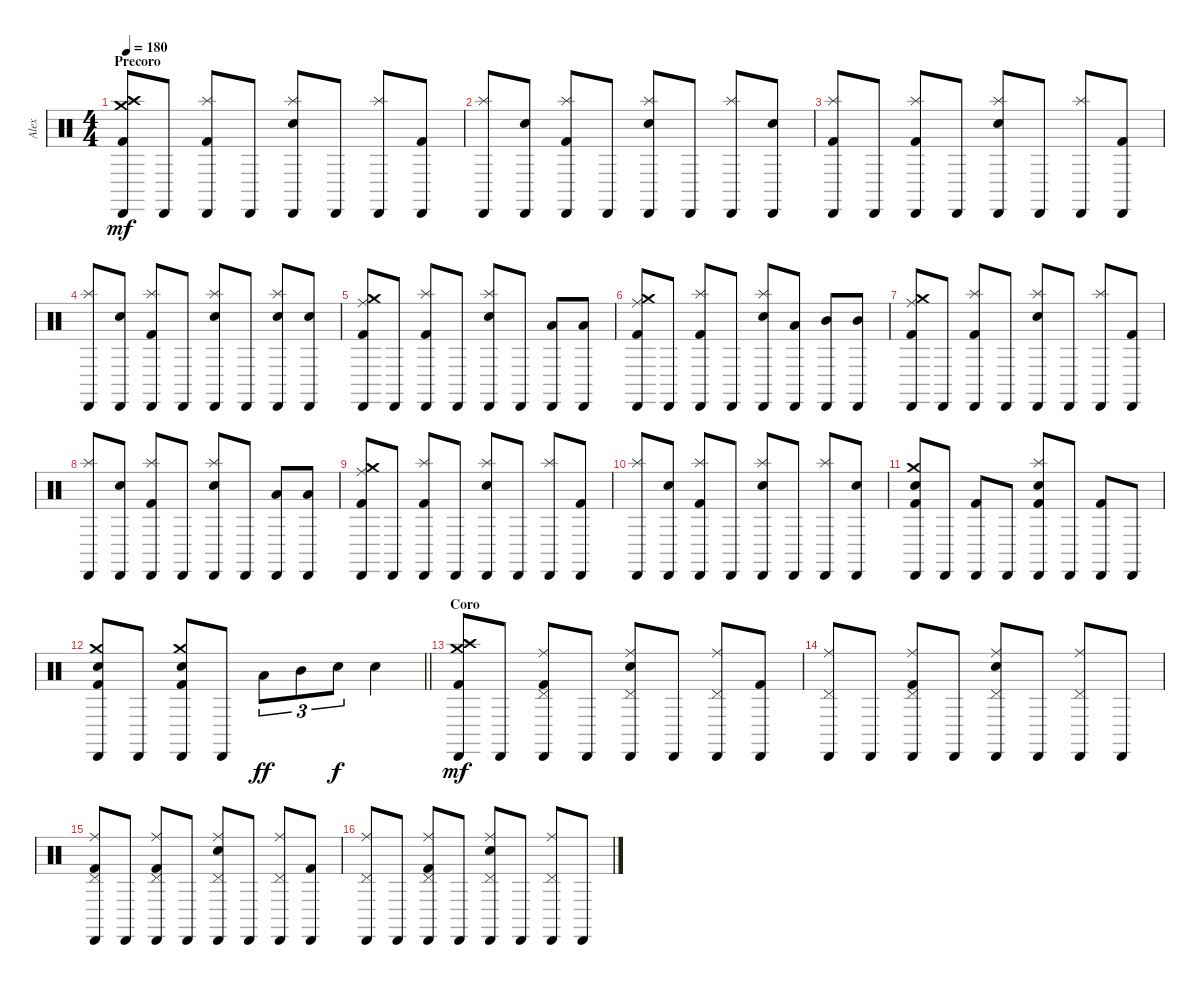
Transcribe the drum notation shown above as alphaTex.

\track ("Alex" "Alex") {instrument percussion}
\staff {score}
\articulation defaults
\ts (4 4)
\section ("" "Precoro")
\tempo 180
\clef neutral
\ks c
("Crash medium (hit)" "Crash high (hit)" "Kick (hit) 2" "Cabasa (hit)").8{dy mf} "Cabasa (hit)".8 ("Splash (hit)" "Kick (hit) 2" "Cabasa (hit)").8 "Cabasa (hit)".8 ("Splash (hit)" "Snare (hit) 2" "Cabasa (hit)").8 "Cabasa (hit)".8 ("Splash (hit)" "Cabasa (hit)").8 ("Kick (hit) 2" "Cabasa (hit)").8 |
("Splash (hit)" "Cabasa (hit)").8 ("Snare (hit) 2" "Cabasa (hit)").8 ("Splash (hit)" "Kick (hit) 2" "Cabasa (hit)").8 "Cabasa (hit)".8 ("Splash (hit)" "Snare (hit) 2" "Cabasa (hit)").8 "Cabasa (hit)".8 ("Splash (hit)" "Cabasa (hit)").8 ("Snare (hit) 2" "Cabasa (hit)").8 |
("Splash (hit)" "Kick (hit) 2" "Cabasa (hit)").8 "Cabasa (hit)".8 ("Splash (hit)" "Kick (hit) 2" "Cabasa (hit)").8 "Cabasa (hit)".8 ("Splash (hit)" "Snare (hit) 2" "Cabasa (hit)").8 "Cabasa (hit)".8 ("Splash (hit)" "Cabasa (hit)").8 ("Kick (hit) 2" "Cabasa (hit)").8 |
("Splash (hit)" "Cabasa (hit)").8 ("Snare (hit) 2" "Cabasa (hit)").8 ("Splash (hit)" "Kick (hit) 2" "Cabasa (hit)").8 "Cabasa (hit)".8 ("Splash (hit)" "Snare (hit) 2" "Cabasa (hit)").8 "Cabasa (hit)".8 ("Splash (hit)" "Snare (hit) 2" "Cabasa (hit)").8 ("Snare (hit) 2" "Cabasa (hit)").8 |
("Ride (middle)" "Crash medium (hit)" "Kick (hit) 2" "Cabasa (hit)").8 "Cabasa (hit)".8 ("Splash (hit)" "Kick (hit) 2" "Cabasa (hit)").8 "Cabasa (hit)".8 ("Splash (hit)" "Snare (hit) 2" "Cabasa (hit)").8 "Cabasa (hit)".8 ("Low Tom (hit)" "Cabasa (hit)").8 ("Low Tom (hit)" "Cabasa (hit)").8 |
("Ride (middle)" "Crash medium (hit)" "Kick (hit) 2" "Cabasa (hit)").8 "Cabasa (hit)".8 ("Splash (hit)" "Kick (hit) 2" "Cabasa (hit)").8 "Cabasa (hit)".8 ("Splash (hit)" "Snare (hit) 2" "Cabasa (hit)").8 ("Low Tom (hit)" "Cabasa (hit)").8 ("Mid Tom (hit)" "Cabasa (hit)").8 ("Mid Tom (hit)" "Cabasa (hit)").8 |
("Ride (middle)" "Crash medium (hit)" "Kick (hit) 2" "Cabasa (hit)").8 "Cabasa (hit)".8 ("Splash (hit)" "Kick (hit) 2" "Cabasa (hit)").8 "Cabasa (hit)".8 ("Splash (hit)" "Snare (hit) 2" "Cabasa (hit)").8 "Cabasa (hit)".8 ("Splash (hit)" "Cabasa (hit)").8 ("Kick (hit) 2" "Cabasa (hit)").8 |
("Splash (hit)" "Cabasa (hit)").8 ("Snare (hit) 2" "Cabasa (hit)").8 ("Splash (hit)" "Kick (hit) 2" "Cabasa (hit)").8 "Cabasa (hit)".8 ("Splash (hit)" "Snare (hit) 2" "Cabasa (hit)").8 "Cabasa (hit)".8 ("Low Tom (hit)" "Cabasa (hit)").8 ("Low Tom (hit)" "Cabasa (hit)").8 |
("Ride (middle)" "Crash medium (hit)" "Kick (hit) 2" "Cabasa (hit)").8 "Cabasa (hit)".8 ("Splash (hit)" "Kick (hit) 2" "Cabasa (hit)").8 "Cabasa (hit)".8 ("Splash (hit)" "Snare (hit) 2" "Cabasa (hit)").8 "Cabasa (hit)".8 ("Splash (hit)" "Cabasa (hit)").8 ("Kick (hit) 2" "Cabasa (hit)").8 |
("Splash (hit)" "Cabasa (hit)").8 ("Snare (hit) 2" "Cabasa (hit)").8 ("Splash (hit)" "Kick (hit) 2" "Cabasa (hit)").8 "Cabasa (hit)".8 ("Splash (hit)" "Snare (hit) 2" "Cabasa (hit)").8 "Cabasa (hit)".8 ("Splash (hit)" "Cabasa (hit)").8 ("Snare (hit) 2" "Cabasa (hit)").8 |
("Crash medium (hit)" "Kick (hit) 2" "Snare (hit) 2" "Cabasa (hit)").8 "Cabasa (hit)".8 ("Kick (hit) 2" "Cabasa (hit)").8 "Cabasa (hit)".8 ("Splash (hit)" "Kick (hit) 2" "Snare (hit) 2" "Cabasa (hit)").8 "Cabasa (hit)".8 ("Kick (hit) 2" "Cabasa (hit)").8 "Cabasa (hit)".8 |
\barLineRight lightlight
("Crash medium (hit)" "Kick (hit) 2" "Snare (hit) 2" "Cabasa (hit)").8 "Cabasa (hit)".8 ("Crash medium (hit)" "Kick (hit) 2" "Snare (hit) 2" "Cabasa (hit)").8 "Cabasa (hit)".8 "Low Tom (hit)".8{tu (3 2) dy ff} "Mid Tom (hit)".8{tu (3 2)} "Snare (hit) 2".8{tu (3 2) dy f} "Snare (hit) 2".4 |
\section ("" "Coro")
("Crash medium (hit)" "Crash high (hit)" "Kick (hit) 2" "Cabasa (hit)").8{dy mf} "Cabasa (hit)".8 ("Ride (middle)" "Pedal Hi-Hat (hit)" "Kick (hit) 2" "Cabasa (hit)").8 "Cabasa (hit)".8 ("Ride (middle)" "Pedal Hi-Hat (hit)" "Snare (hit) 2" "Cabasa (hit)").8 "Cabasa (hit)".8 ("Ride (middle)" "Pedal Hi-Hat (hit)" "Cabasa (hit)").8 ("Kick (hit) 2" "Cabasa (hit)").8 |
("Ride (middle)" "Pedal Hi-Hat (hit)" "Cabasa (hit)").8 "Cabasa (hit)".8 ("Ride (middle)" "Pedal Hi-Hat (hit)" "Kick (hit) 2" "Cabasa (hit)").8 "Cabasa (hit)".8 ("Ride (middle)" "Pedal Hi-Hat (hit)" "Snare (hit) 2" "Cabasa (hit)").8 "Cabasa (hit)".8 ("Ride (middle)" "Pedal Hi-Hat (hit)" "Cabasa (hit)").8 "Cabasa (hit)".8 |
("Ride (middle)" "Pedal Hi-Hat (hit)" "Kick (hit) 2" "Cabasa (hit)").8 "Cabasa (hit)".8 ("Ride (middle)" "Pedal Hi-Hat (hit)" "Kick (hit) 2" "Cabasa (hit)").8 "Cabasa (hit)".8 ("Ride (middle)" "Pedal Hi-Hat (hit)" "Snare (hit) 2" "Cabasa (hit)").8 "Cabasa (hit)".8 ("Ride (middle)" "Pedal Hi-Hat (hit)" "Cabasa (hit)").8 ("Kick (hit) 2" "Cabasa (hit)").8 |
("Ride (middle)" "Pedal Hi-Hat (hit)" "Cabasa (hit)").8 "Cabasa (hit)".8 ("Ride (middle)" "Pedal Hi-Hat (hit)" "Kick (hit) 2" "Cabasa (hit)").8 "Cabasa (hit)".8 ("Ride (middle)" "Pedal Hi-Hat (hit)" "Snare (hit) 2" "Cabasa (hit)").8 "Cabasa (hit)".8 ("Ride (middle)" "Pedal Hi-Hat (hit)" "Cabasa (hit)").8 "Cabasa (hit)".8
